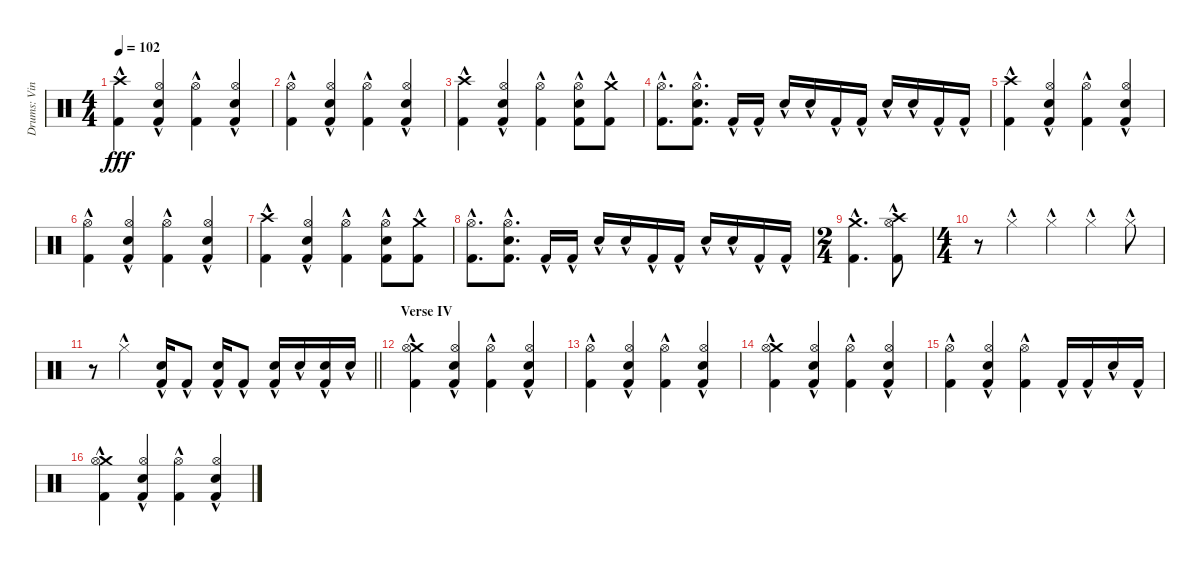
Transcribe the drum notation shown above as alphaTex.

\track ("Drums: Vinny" "Drums: Vin") {instrument percussion}
\staff {score}
\articulation defaults
\ts (4 4)
\tempo 102
\clef neutral
\ks c
("Crash high (hit)"{hac} "Kick (hit) 2"{hac}).4{dy fff} ("Hi-Hat (open)"{hac} "Snare (hit) 2"{hac} "Kick (hit) 2"{hac}).4 ("Hi-Hat (open)"{hac} "Kick (hit) 2"{hac}).4 ("Hi-Hat (open)"{hac} "Snare (hit) 2"{hac} "Kick (hit) 2"{hac}).4 |
("Hi-Hat (open)"{hac} "Kick (hit) 2"{hac}).4 ("Hi-Hat (open)"{hac} "Snare (hit) 2"{hac} "Kick (hit) 2"{hac}).4 ("Hi-Hat (open)"{hac} "Kick (hit) 2"{hac}).4 ("Hi-Hat (open)"{hac} "Snare (hit) 2"{hac} "Kick (hit) 2"{hac}).4 |
("Crash high (hit)"{hac} "Kick (hit) 2"{hac}).4 ("Hi-Hat (open)"{hac} "Snare (hit) 2"{hac} "Kick (hit) 2"{hac}).4 ("Hi-Hat (open)"{hac} "Kick (hit) 2"{hac}).4 ("Hi-Hat (open)"{hac} "Snare (hit) 2"{hac} "Kick (hit) 2"{hac}).8 ("Crash medium (hit)"{hac} "Kick (hit) 2"{hac}).8 |
("Hi-Hat (open)"{hac} "Kick (hit) 2"{hac}).8{d} ("Hi-Hat (open)"{hac} "Snare (hit) 2"{hac} "Kick (hit) 2"{hac}).8{d} "Kick (hit) 2"{hac}.16 "Kick (hit) 2"{hac}.16 "Snare (hit) 2"{hac}.16 "Snare (hit) 2"{hac}.16 "Kick (hit) 2"{hac}.16 "Kick (hit) 2"{hac}.16 "Snare (hit) 2"{hac}.16 "Snare (hit) 2"{hac}.16 "Kick (hit) 2"{hac}.16 "Kick (hit) 2"{hac}.16 |
("Crash high (hit)"{hac} "Kick (hit) 2"{hac}).4 ("Hi-Hat (open)"{hac} "Snare (hit) 2"{hac} "Kick (hit) 2"{hac}).4 ("Hi-Hat (open)"{hac} "Kick (hit) 2"{hac}).4 ("Hi-Hat (open)"{hac} "Snare (hit) 2"{hac} "Kick (hit) 2"{hac}).4 |
("Hi-Hat (open)"{hac} "Kick (hit) 2"{hac}).4 ("Hi-Hat (open)"{hac} "Snare (hit) 2"{hac} "Kick (hit) 2"{hac}).4 ("Hi-Hat (open)"{hac} "Kick (hit) 2"{hac}).4 ("Hi-Hat (open)"{hac} "Snare (hit) 2"{hac} "Kick (hit) 2"{hac}).4 |
("Crash high (hit)"{hac} "Kick (hit) 2"{hac}).4 ("Hi-Hat (open)"{hac} "Snare (hit) 2"{hac} "Kick (hit) 2"{hac}).4 ("Hi-Hat (open)"{hac} "Kick (hit) 2"{hac}).4 ("Hi-Hat (open)"{hac} "Snare (hit) 2"{hac} "Kick (hit) 2"{hac}).8 ("Crash medium (hit)"{hac} "Kick (hit) 2"{hac}).8 |
("Hi-Hat (open)"{hac} "Kick (hit) 2"{hac}).8{d} ("Hi-Hat (open)"{hac} "Snare (hit) 2"{hac} "Kick (hit) 2"{hac}).8{d} "Kick (hit) 2"{hac}.16 "Kick (hit) 2"{hac}.16 "Snare (hit) 2"{hac}.16 "Snare (hit) 2"{hac}.16 "Kick (hit) 2"{hac}.16 "Kick (hit) 2"{hac}.16 "Snare (hit) 2"{hac}.16 "Snare (hit) 2"{hac}.16 "Kick (hit) 2"{hac}.16 "Kick (hit) 2"{hac}.16 |
\ts (2 4)
("Crash medium (hit)"{hac} "Kick (hit) 2"{hac}).4{d} ("Crash high (hit)"{hac} "Hi-Hat (open)"{hac} "Kick (hit) 2"{hac}).8 |
\ts (4 4)
r.8 "Hi-Hat (closed)"{hac}.4 "Hi-Hat (closed)"{hac}.4 "Hi-Hat (closed)"{hac}.4 "Hi-Hat (closed)"{hac}.8 |
\barLineRight lightlight
r.8 "Hi-Hat (closed)"{hac}.4 ("Electric Snare (hit)"{hac} "Kick (hit) 2"{hac}).16 "Kick (hit) 2"{hac}.8 ("Electric Snare (hit)"{hac} "Kick (hit) 2"{hac}).16 "Kick (hit) 2"{hac}.8 ("Electric Snare (hit)"{hac} "Kick (hit) 2"{hac}).16 "Snare (hit) 2"{hac}.16 ("Electric Snare (hit)"{hac} "Kick (hit) 2").16 "Snare (hit) 2"{hac}.16 |
\section ("" "Verse IV")
("Crash medium (hit)"{hac} "Hi-Hat (open)"{hac} "Kick (hit) 2"{hac}).4 ("Hi-Hat (open)"{hac} "Snare (hit) 2"{hac} "Kick (hit) 2"{hac}).4 ("Hi-Hat (open)"{hac} "Kick (hit) 2"{hac}).4 ("Hi-Hat (open)"{hac} "Snare (hit) 2"{hac} "Kick (hit) 2"{hac}).4 |
("Hi-Hat (open)"{hac} "Kick (hit) 2"{hac}).4 ("Hi-Hat (open)"{hac} "Snare (hit) 2"{hac} "Kick (hit) 2"{hac}).4 ("Hi-Hat (open)"{hac} "Kick (hit) 2"{hac}).4 ("Hi-Hat (open)"{hac} "Snare (hit) 2"{hac} "Kick (hit) 2"{hac}).4 |
("Crash medium (hit)"{hac} "Hi-Hat (open)"{hac} "Kick (hit) 2"{hac}).4 ("Hi-Hat (open)"{hac} "Snare (hit) 2"{hac} "Kick (hit) 2"{hac}).4 ("Hi-Hat (open)"{hac} "Kick (hit) 2"{hac}).4 ("Hi-Hat (open)"{hac} "Snare (hit) 2"{hac} "Kick (hit) 2"{hac}).4 |
("Hi-Hat (open)"{hac} "Kick (hit) 2"{hac}).4 ("Hi-Hat (open)"{hac} "Snare (hit) 2"{hac} "Kick (hit) 2"{hac}).4 ("Hi-Hat (open)"{hac} "Kick (hit) 2"{hac}).4 "Kick (hit) 2"{hac}.16 "Kick (hit) 2"{hac}.16 "Snare (hit) 2"{hac}.16 "Kick (hit) 2"{hac}.16 |
("Crash medium (hit)"{hac} "Hi-Hat (open)"{hac} "Kick (hit) 2"{hac}).4 ("Hi-Hat (open)"{hac} "Snare (hit) 2"{hac} "Kick (hit) 2"{hac}).4 ("Hi-Hat (open)"{hac} "Kick (hit) 2"{hac}).4 ("Hi-Hat (open)"{hac} "Snare (hit) 2"{hac} "Kick (hit) 2"{hac}).4
